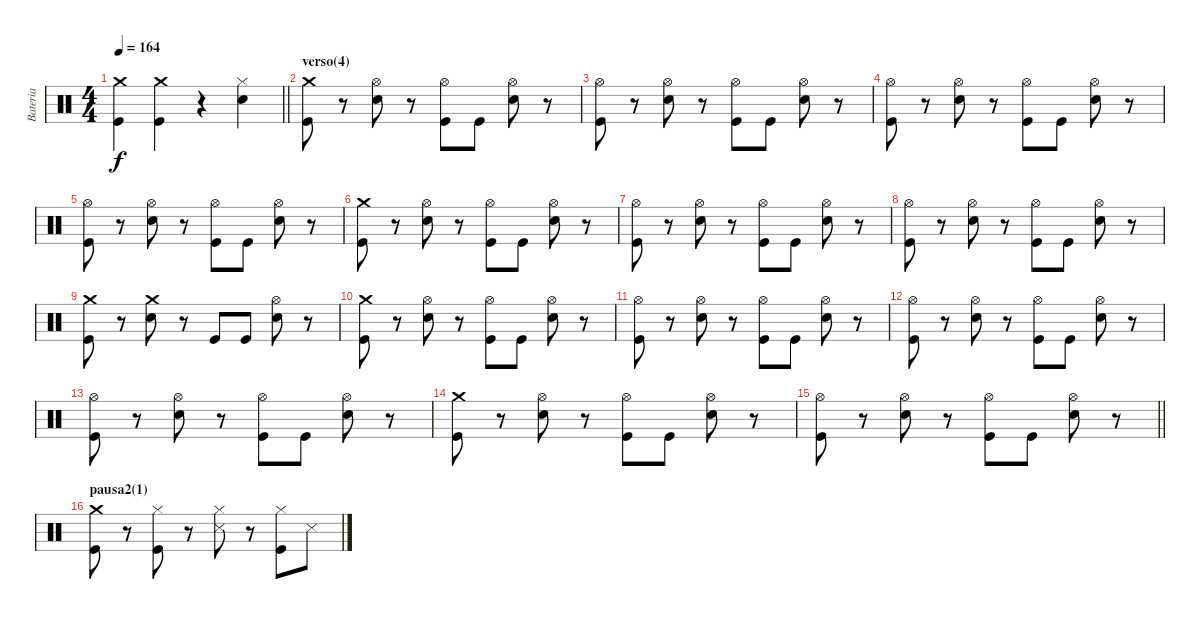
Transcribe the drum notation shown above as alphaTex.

\track ("Bateria" "Bateria") {instrument percussion}
\staff {score}
\articulation defaults
\ts (4 4)
\tempo 164
\clef neutral
\barLineRight lightlight
\ks c
("Crash medium (hit)" "Kick (hit)").4{dy f} ("Crash medium (hit)" "Kick (hit)").4 r.4 ("Hi-Hat (closed)" "Snare (hit) 2").4 |
\section ("" "verso(4)")
("Crash medium (hit)" "Kick (hit)").8 r.8 ("Hi-Hat (open)" "Snare (hit) 2").8 r.8 ("Hi-Hat (open)" "Kick (hit)").8 "Kick (hit)".8 ("Hi-Hat (open)" "Snare (hit) 2").8 r.8 |
("Hi-Hat (open)" "Kick (hit)").8 r.8 ("Hi-Hat (open)" "Snare (hit) 2").8 r.8 ("Hi-Hat (open)" "Kick (hit)").8 "Kick (hit)".8 ("Hi-Hat (open)" "Snare (hit) 2").8 r.8 |
("Hi-Hat (open)" "Kick (hit)").8 r.8 ("Hi-Hat (open)" "Snare (hit) 2").8 r.8 ("Hi-Hat (open)" "Kick (hit)").8 "Kick (hit)".8 ("Hi-Hat (open)" "Snare (hit) 2").8 r.8 |
("Hi-Hat (open)" "Kick (hit)").8 r.8 ("Hi-Hat (open)" "Snare (hit) 2").8 r.8 ("Hi-Hat (open)" "Kick (hit)").8 "Kick (hit)".8 ("Hi-Hat (open)" "Snare (hit) 2").8 r.8 |
("Crash medium (hit)" "Kick (hit)").8 r.8 ("Hi-Hat (open)" "Snare (hit) 2").8 r.8 ("Hi-Hat (open)" "Kick (hit)").8 "Kick (hit)".8 ("Hi-Hat (open)" "Snare (hit) 2").8 r.8 |
("Hi-Hat (open)" "Kick (hit)").8 r.8 ("Hi-Hat (open)" "Snare (hit) 2").8 r.8 ("Hi-Hat (open)" "Kick (hit)").8 "Kick (hit)".8 ("Hi-Hat (open)" "Snare (hit) 2").8 r.8 |
("Hi-Hat (open)" "Kick (hit)").8 r.8 ("Hi-Hat (open)" "Snare (hit) 2").8 r.8 ("Hi-Hat (open)" "Kick (hit)").8 "Kick (hit)".8 ("Hi-Hat (open)" "Snare (hit) 2").8 r.8 |
("Crash medium (hit)" "Kick (hit)").8 r.8 ("Crash medium (hit)" "Snare (hit) 2").8 r.8 "Kick (hit)".8 "Kick (hit)".8 ("Hi-Hat (open)" "Snare (hit) 2").8 r.8 |
("Crash medium (hit)" "Kick (hit)").8 r.8 ("Hi-Hat (open)" "Snare (hit) 2").8 r.8 ("Hi-Hat (open)" "Kick (hit)").8 "Kick (hit)".8 ("Hi-Hat (open)" "Snare (hit) 2").8 r.8 |
("Hi-Hat (open)" "Kick (hit)").8 r.8 ("Hi-Hat (open)" "Snare (hit) 2").8 r.8 ("Hi-Hat (open)" "Kick (hit)").8 "Kick (hit)".8 ("Hi-Hat (open)" "Snare (hit) 2").8 r.8 |
("Hi-Hat (open)" "Kick (hit)").8 r.8 ("Hi-Hat (open)" "Snare (hit) 2").8 r.8 ("Hi-Hat (open)" "Kick (hit)").8 "Kick (hit)".8 ("Hi-Hat (open)" "Snare (hit) 2").8 r.8 |
("Hi-Hat (open)" "Kick (hit)").8 r.8 ("Hi-Hat (open)" "Snare (hit) 2").8 r.8 ("Hi-Hat (open)" "Kick (hit)").8 "Kick (hit)".8 ("Hi-Hat (open)" "Snare (hit) 2").8 r.8 |
("Crash medium (hit)" "Kick (hit)").8 r.8 ("Hi-Hat (open)" "Snare (hit) 2").8 r.8 ("Hi-Hat (open)" "Kick (hit)").8 "Kick (hit)".8 ("Hi-Hat (open)" "Snare (hit) 2").8 r.8 |
\barLineRight lightlight
("Hi-Hat (open)" "Kick (hit)").8 r.8 ("Hi-Hat (open)" "Snare (hit) 2").8 r.8 ("Hi-Hat (open)" "Kick (hit)").8 "Kick (hit)".8 ("Hi-Hat (open)" "Snare (hit) 2").8 r.8 |
\section ("" "pausa2(1)")
("Crash medium (hit)" "Kick (hit)").8 r.8 ("Hi-Hat (closed)" "Kick (hit)").8 r.8 ("Hi-Hat (closed)" "Snare (side stick) 3").8 r.8 ("Hi-Hat (closed)" "Kick (hit)").8 "Snare (side stick) 3".8
